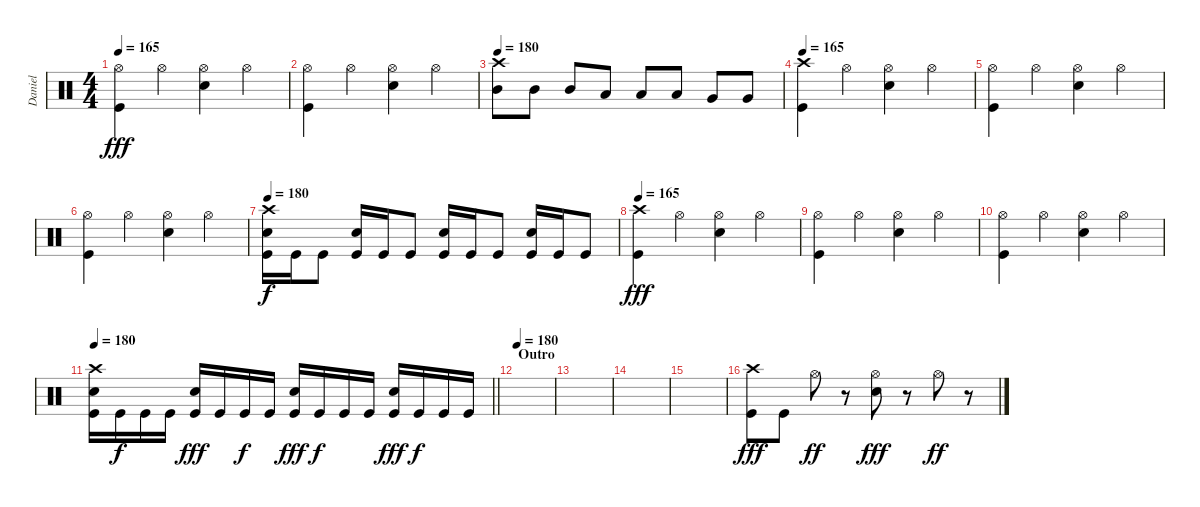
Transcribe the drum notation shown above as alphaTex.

\track ("Daniel" "Daniel") {instrument percussion}
\staff {score}
\articulation defaults
\ts (4 4)
\tempo 165
\clef neutral
\ks c
("Hi-Hat (open)" "Kick (hit)").4{dy fff} "Hi-Hat (open)".4 ("Hi-Hat (open)" "Snare (hit) 2").4 "Hi-Hat (open)".4 |
("Hi-Hat (open)" "Kick (hit)").4 "Hi-Hat (open)".4 ("Hi-Hat (open)" "Snare (hit) 2").4 "Hi-Hat (open)".4 |
\tempo 180
("Crash high (hit)" "Mid Tom (hit)").8 "Mid Tom (hit)".8 "Mid Tom (hit)".8 "Low Tom (hit)".8 "Low Tom (hit)".8 "Low Tom (hit)".8 "Very Low Tom (hit)".8 "Very Low Tom (hit)".8 |
\tempo 165
("Crash high (hit)" "Kick (hit)").4 "Hi-Hat (open)".4 ("Hi-Hat (open)" "Snare (hit) 2").4 "Hi-Hat (open)".4 |
("Hi-Hat (open)" "Kick (hit)").4 "Hi-Hat (open)".4 ("Hi-Hat (open)" "Snare (hit) 2").4 "Hi-Hat (open)".4 |
("Hi-Hat (open)" "Kick (hit)").4 "Hi-Hat (open)".4 ("Hi-Hat (open)" "Snare (hit) 2").4 "Hi-Hat (open)".4 |
\tempo 180
("Crash high (hit)" "Snare (hit) 2" "Kick (hit)").16{dy f} "Kick (hit)".16 "Kick (hit)".8 ("Snare (hit) 2" "Kick (hit)").16 "Kick (hit)".16 "Kick (hit)".8 ("Snare (hit) 2" "Kick (hit)").16 "Kick (hit)".16 "Kick (hit)".8 ("Snare (hit) 2" "Kick (hit)").16 "Kick (hit)".16 "Kick (hit)".8 |
\tempo 165
("Crash high (hit)" "Kick (hit)").4{dy fff} "Hi-Hat (open)".4 ("Hi-Hat (open)" "Snare (hit) 2").4 "Hi-Hat (open)".4 |
("Hi-Hat (open)" "Kick (hit)").4 "Hi-Hat (open)".4 ("Hi-Hat (open)" "Snare (hit) 2").4 "Hi-Hat (open)".4 |
("Hi-Hat (open)" "Kick (hit)").4 "Hi-Hat (open)".4 ("Hi-Hat (open)" "Snare (hit) 2").4 "Hi-Hat (open)".4 |
\tempo 180
\barLineRight lightlight
("Crash high (hit)" "Snare (hit) 2" "Kick (hit)").16 "Kick (hit)".16{dy f} "Kick (hit)".16 "Kick (hit)".16 ("Snare (hit) 2" "Kick (hit)").16{dy fff} "Kick (hit)".16 "Kick (hit)".16{dy f} "Kick (hit)".16 ("Snare (hit) 2" "Kick (hit)").16{dy fff} "Kick (hit)".16{dy f} "Kick (hit)".16 "Kick (hit)".16 ("Snare (hit) 2" "Kick (hit)").16{dy fff} "Kick (hit)".16{dy f} "Kick (hit)".16 "Kick (hit)".16 |
\section ("" "Outro")
\tempo 180
|
|
|
|
("Crash high (hit)" "Kick (hit)").8{dy fff} "Kick (hit)".8 "Hi-Hat (open)".8{dy ff} r.8 ("Hi-Hat (open)" "Snare (hit) 2").8{dy fff} r.8 "Hi-Hat (open)".8{dy ff} r.8
